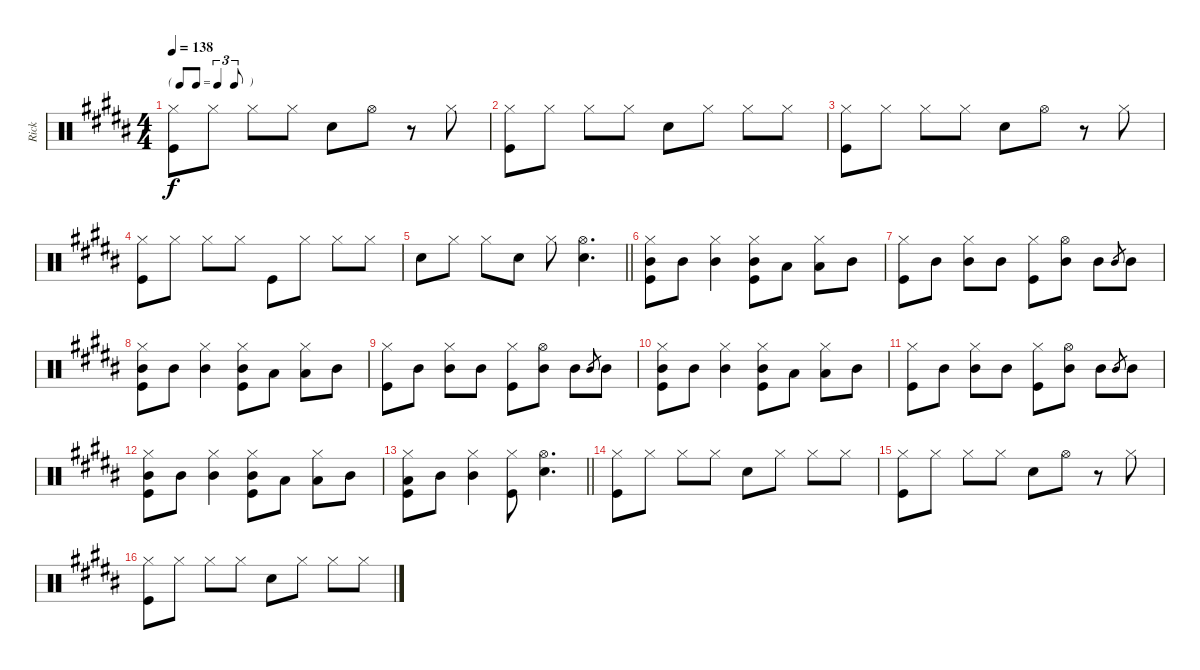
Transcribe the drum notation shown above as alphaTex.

\track ("Rick" "Rick") {instrument percussion}
\staff {score}
\articulation defaults
\ts (4 4)
\tf triplet8th
\tempo 138
\clef neutral
\ks b
("Hi-Hat (closed)" "Kick (hit)").8{dy f} "Hi-Hat (closed)".8 "Hi-Hat (closed)".8 "Hi-Hat (closed)".8 "Snare (hit) 2".8 "Hi-Hat (open)".8 r.8 "Hi-Hat (closed)".8 |
("Hi-Hat (closed)" "Kick (hit)").8 "Hi-Hat (closed)".8 "Hi-Hat (closed)".8 "Hi-Hat (closed)".8 "Snare (hit) 2".8 "Hi-Hat (closed)".8 "Hi-Hat (closed)".8 "Hi-Hat (closed)".8 |
("Hi-Hat (closed)" "Kick (hit)").8 "Hi-Hat (closed)".8 "Hi-Hat (closed)".8 "Hi-Hat (closed)".8 "Snare (hit) 2".8 "Hi-Hat (open)".8 r.8 "Hi-Hat (closed)".8 |
("Hi-Hat (closed)" "Kick (hit)").8 "Hi-Hat (closed)".8 "Hi-Hat (closed)".8 "Hi-Hat (closed)".8 "Kick (hit)".8 "Hi-Hat (closed)".8 "Hi-Hat (closed)".8 "Hi-Hat (closed)".8 |
\barLineRight lightlight "Snare (hit) 2".8 "Hi-Hat (closed)".8 "Hi-Hat (closed)".8 "Snare (hit) 2".8 "Hi-Hat (closed)".8
("Hi-Hat (open)" "Snare (hit) 2").4{d} |
("Hi-Hat (closed)" "Mid Tom (hit)" "Kick (hit)").8 "Mid Tom (hit)".8 ("Hi-Hat (closed)" "Mid Tom (hit)").4 ("Hi-Hat (closed)" "Mid Tom (hit)" "Kick (hit)").8 "Low Tom (hit)".8 ("Hi-Hat (closed)" "Low Tom (hit)").8 "Mid Tom (hit)".8 |
("Hi-Hat (closed)" "Kick (hit)").8 "Mid Tom (hit)".8 ("Hi-Hat (closed)" "Mid Tom (hit)").8 "Mid Tom (hit)".8 ("Hi-Hat (closed)" "Kick (hit)").8 ("Hi-Hat (open)" "Mid Tom (hit)").8 "Mid Tom (hit)".8 "Mid Tom (hit)".8{gr} "Mid Tom (hit)".8 |
("Hi-Hat (closed)" "Mid Tom (hit)" "Kick (hit)").8 "Mid Tom (hit)".8 ("Hi-Hat (closed)" "Mid Tom (hit)").4 ("Hi-Hat (closed)" "Mid Tom (hit)" "Kick (hit)").8 "Low Tom (hit)".8 ("Hi-Hat (closed)" "Low Tom (hit)").8 "Mid Tom (hit)".8 |
("Hi-Hat (closed)" "Kick (hit)").8 "Mid Tom (hit)".8 ("Hi-Hat (closed)" "Mid Tom (hit)").8 "Mid Tom (hit)".8 ("Hi-Hat (closed)" "Kick (hit)").8 ("Hi-Hat (open)" "Mid Tom (hit)").8 "Mid Tom (hit)".8 "Mid Tom (hit)".8{gr} "Mid Tom (hit)".8 |
("Hi-Hat (closed)" "Mid Tom (hit)" "Kick (hit)").8 "Mid Tom (hit)".8 ("Hi-Hat (closed)" "Mid Tom (hit)").4 ("Hi-Hat (closed)" "Mid Tom (hit)" "Kick (hit)").8 "Low Tom (hit)".8 ("Hi-Hat (closed)" "Low Tom (hit)").8 "Mid Tom (hit)".8 |
("Hi-Hat (closed)" "Kick (hit)").8 "Mid Tom (hit)".8 ("Hi-Hat (closed)" "Mid Tom (hit)").8 "Mid Tom (hit)".8 ("Hi-Hat (closed)" "Kick (hit)").8 ("Hi-Hat (open)" "Mid Tom (hit)").8 "Mid Tom (hit)".8 "Mid Tom (hit)".8{gr} "Mid Tom (hit)".8 |
("Hi-Hat (closed)" "Mid Tom (hit)" "Kick (hit)").8 "Mid Tom (hit)".8 ("Hi-Hat (closed)" "Mid Tom (hit)").4 ("Hi-Hat (closed)" "Mid Tom (hit)" "Kick (hit)").8 "Low Tom (hit)".8 ("Hi-Hat (closed)" "Low Tom (hit)").8 "Mid Tom (hit)".8 |
\barLineRight lightlight
("Hi-Hat (closed)" "Low Tom (hit)" "Kick (hit)").8 "Mid Tom (hit)".8 ("Hi-Hat (closed)" "Mid Tom (hit)").4 ("Hi-Hat (closed)" "Kick (hit)").8 ("Hi-Hat (open)" "Snare (hit) 2").4{d} |
("Hi-Hat (closed)" "Kick (hit)").8 "Hi-Hat (closed)".8 "Hi-Hat (closed)".8 "Hi-Hat (closed)".8 "Snare (hit) 2".8 "Hi-Hat (closed)".8 "Hi-Hat (closed)".8 "Hi-Hat (closed)".8 |
("Hi-Hat (closed)" "Kick (hit)").8 "Hi-Hat (closed)".8 "Hi-Hat (closed)".8 "Hi-Hat (closed)".8 "Snare (hit) 2".8 "Hi-Hat (open)".8 r.8 "Hi-Hat (closed)".8 |
("Hi-Hat (closed)" "Kick (hit)").8 "Hi-Hat (closed)".8 "Hi-Hat (closed)".8 "Hi-Hat (closed)".8 "Snare (hit) 2".8 "Hi-Hat (closed)".8 "Hi-Hat (closed)".8 "Hi-Hat (closed)".8
